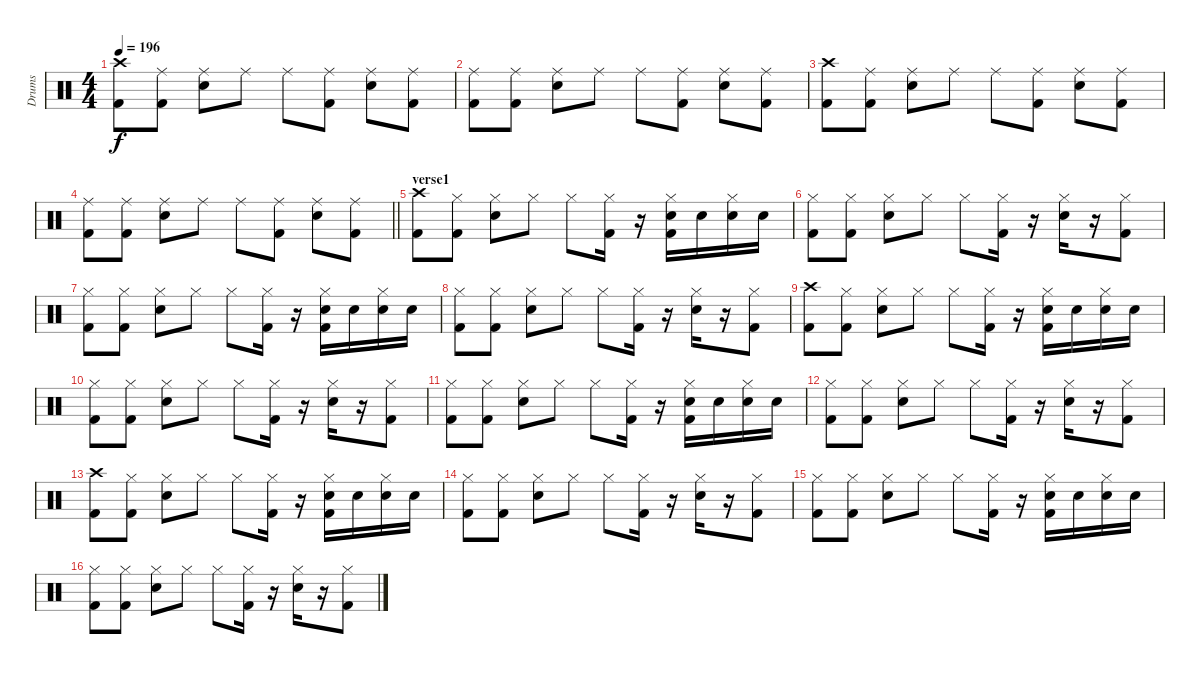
\track ("Drums" "Drums") {instrument percussion}
\staff {score}
\articulation defaults
\ts (4 4)
\tempo 196
\clef neutral
\ks c
("Crash high (hit)" "Kick (hit) 2").8{dy f} ("Ride (middle)" "Kick (hit) 2").8 ("Ride (middle)" "Electric Snare (hit)").8 "Ride (middle)".8 "Ride (middle)".8 ("Ride (middle)" "Kick (hit) 2").8 ("Ride (middle)" "Electric Snare (hit)").8 ("Ride (middle)" "Kick (hit) 2").8 |
("Ride (middle)" "Kick (hit) 2").8 ("Ride (middle)" "Kick (hit) 2").8 ("Ride (middle)" "Electric Snare (hit)").8 "Ride (middle)".8 "Ride (middle)".8 ("Ride (middle)" "Kick (hit) 2").8 ("Ride (middle)" "Electric Snare (hit)").8 ("Ride (middle)" "Kick (hit) 2").8 |
("Crash high (hit)" "Kick (hit) 2").8 ("Ride (middle)" "Kick (hit) 2").8 ("Ride (middle)" "Electric Snare (hit)").8 "Ride (middle)".8 "Ride (middle)".8 ("Ride (middle)" "Kick (hit) 2").8 ("Ride (middle)" "Electric Snare (hit)").8 ("Ride (middle)" "Kick (hit) 2").8 |
\barLineRight lightlight
("Ride (middle)" "Kick (hit) 2").8 ("Ride (middle)" "Kick (hit) 2").8 ("Ride (middle)" "Electric Snare (hit)").8 "Ride (middle)".8 "Ride (middle)".8 ("Ride (middle)" "Kick (hit) 2").8 ("Ride (middle)" "Electric Snare (hit)").8 ("Ride (middle)" "Kick (hit) 2").8 |
\section ("" "verse1")
("Crash high (hit)" "Kick (hit) 2").8 ("Hi-Hat (closed)" "Kick (hit) 2").8 ("Hi-Hat (closed)" "Electric Snare (hit)").8 "Hi-Hat (closed)".8 "Hi-Hat (closed)".8 ("Hi-Hat (closed)" "Kick (hit) 2").16 r.16 ("Hi-Hat (closed)" "Electric Snare (hit)" "Kick (hit) 2").16 "Electric Snare (hit)".16 ("Hi-Hat (closed)" "Electric Snare (hit)").16 "Electric Snare (hit)".16 |
("Hi-Hat (closed)" "Kick (hit) 2").8 ("Hi-Hat (closed)" "Kick (hit) 2").8 ("Hi-Hat (closed)" "Electric Snare (hit)").8 "Hi-Hat (closed)".8 "Hi-Hat (closed)".8 ("Hi-Hat (closed)" "Kick (hit) 2").16 r.16 ("Hi-Hat (closed)" "Electric Snare (hit)").16 r.16 ("Hi-Hat (closed)" "Kick (hit) 2").8 |
("Hi-Hat (closed)" "Kick (hit) 2").8 ("Hi-Hat (closed)" "Kick (hit) 2").8 ("Hi-Hat (closed)" "Electric Snare (hit)").8 "Hi-Hat (closed)".8 "Hi-Hat (closed)".8 ("Hi-Hat (closed)" "Kick (hit) 2").16 r.16 ("Hi-Hat (closed)" "Electric Snare (hit)" "Kick (hit) 2").16 "Electric Snare (hit)".16 ("Hi-Hat (closed)" "Electric Snare (hit)").16 "Electric Snare (hit)".16 |
("Hi-Hat (closed)" "Kick (hit) 2").8 ("Hi-Hat (closed)" "Kick (hit) 2").8 ("Hi-Hat (closed)" "Electric Snare (hit)").8 "Hi-Hat (closed)".8 "Hi-Hat (closed)".8 ("Hi-Hat (closed)" "Kick (hit) 2").16 r.16 ("Hi-Hat (closed)" "Electric Snare (hit)").16 r.16 ("Hi-Hat (closed)" "Kick (hit) 2").8 |
("Crash high (hit)" "Kick (hit) 2").8 ("Hi-Hat (closed)" "Kick (hit) 2").8 ("Hi-Hat (closed)" "Electric Snare (hit)").8 "Hi-Hat (closed)".8 "Hi-Hat (closed)".8 ("Hi-Hat (closed)" "Kick (hit) 2").16 r.16 ("Hi-Hat (closed)" "Electric Snare (hit)" "Kick (hit) 2").16 "Electric Snare (hit)".16 ("Hi-Hat (closed)" "Electric Snare (hit)").16 "Electric Snare (hit)".16 |
("Hi-Hat (closed)" "Kick (hit) 2").8 ("Hi-Hat (closed)" "Kick (hit) 2").8 ("Hi-Hat (closed)" "Electric Snare (hit)").8 "Hi-Hat (closed)".8 "Hi-Hat (closed)".8 ("Hi-Hat (closed)" "Kick (hit) 2").16 r.16 ("Hi-Hat (closed)" "Electric Snare (hit)").16 r.16 ("Hi-Hat (closed)" "Kick (hit) 2").8 |
("Hi-Hat (closed)" "Kick (hit) 2").8 ("Hi-Hat (closed)" "Kick (hit) 2").8 ("Hi-Hat (closed)" "Electric Snare (hit)").8 "Hi-Hat (closed)".8 "Hi-Hat (closed)".8 ("Hi-Hat (closed)" "Kick (hit) 2").16 r.16 ("Hi-Hat (closed)" "Electric Snare (hit)" "Kick (hit) 2").16 "Electric Snare (hit)".16 ("Hi-Hat (closed)" "Electric Snare (hit)").16 "Electric Snare (hit)".16 |
("Hi-Hat (closed)" "Kick (hit) 2").8 ("Hi-Hat (closed)" "Kick (hit) 2").8 ("Hi-Hat (closed)" "Electric Snare (hit)").8 "Hi-Hat (closed)".8 "Hi-Hat (closed)".8 ("Hi-Hat (closed)" "Kick (hit) 2").16 r.16 ("Hi-Hat (closed)" "Electric Snare (hit)").16 r.16 ("Hi-Hat (closed)" "Kick (hit) 2").8 |
("Crash high (hit)" "Kick (hit) 2").8 ("Hi-Hat (closed)" "Kick (hit) 2").8 ("Hi-Hat (closed)" "Electric Snare (hit)").8 "Hi-Hat (closed)".8 "Hi-Hat (closed)".8 ("Hi-Hat (closed)" "Kick (hit) 2").16 r.16 ("Hi-Hat (closed)" "Electric Snare (hit)" "Kick (hit) 2").16 "Electric Snare (hit)".16 ("Hi-Hat (closed)" "Electric Snare (hit)").16 "Electric Snare (hit)".16 |
("Hi-Hat (closed)" "Kick (hit) 2").8 ("Hi-Hat (closed)" "Kick (hit) 2").8 ("Hi-Hat (closed)" "Electric Snare (hit)").8 "Hi-Hat (closed)".8 "Hi-Hat (closed)".8 ("Hi-Hat (closed)" "Kick (hit) 2").16 r.16 ("Hi-Hat (closed)" "Electric Snare (hit)").16 r.16 ("Hi-Hat (closed)" "Kick (hit) 2").8 |
("Hi-Hat (closed)" "Kick (hit) 2").8 ("Hi-Hat (closed)" "Kick (hit) 2").8 ("Hi-Hat (closed)" "Electric Snare (hit)").8 "Hi-Hat (closed)".8 "Hi-Hat (closed)".8 ("Hi-Hat (closed)" "Kick (hit) 2").16 r.16 ("Hi-Hat (closed)" "Electric Snare (hit)" "Kick (hit) 2").16 "Electric Snare (hit)".16 ("Hi-Hat (closed)" "Electric Snare (hit)").16 "Electric Snare (hit)".16 |
("Hi-Hat (closed)" "Kick (hit) 2").8 ("Hi-Hat (closed)" "Kick (hit) 2").8 ("Hi-Hat (closed)" "Electric Snare (hit)").8 "Hi-Hat (closed)".8 "Hi-Hat (closed)".8 ("Hi-Hat (closed)" "Kick (hit) 2").16 r.16 ("Hi-Hat (closed)" "Electric Snare (hit)").16 r.16 ("Hi-Hat (closed)" "Kick (hit) 2").8
